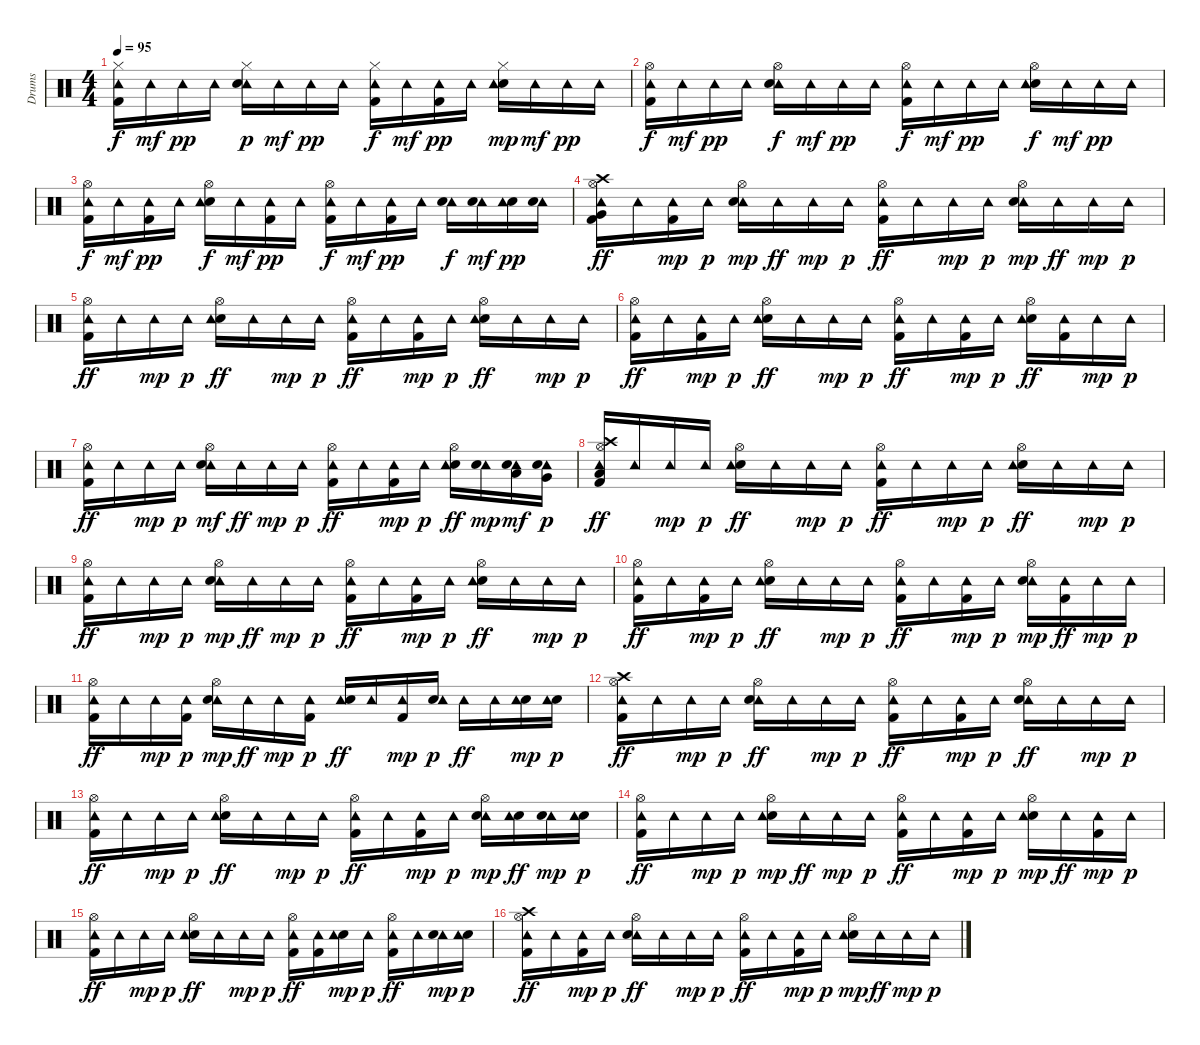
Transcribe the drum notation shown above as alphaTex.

\track ("Drums" "Drums") {instrument percussion}
\staff {score}
\articulation defaults
\ts (4 4)
\tempo 95
\clef neutral
\ks c
("Kick (hit) 2" "Tambourine (hit)" "Hi-Hat (closed)").16{dy f} "Tambourine (hit)".16{dy mf} "Tambourine (hit)".16{dy pp} "Tambourine (hit)".16 ("Hi-Hat (closed)" "Tambourine (hit)" "Snare (hit) 2").16{dy p} "Tambourine (hit)".16{dy mf} "Tambourine (hit)".16{dy pp} "Tambourine (hit)".16 ("Kick (hit) 2" "Tambourine (hit)" "Hi-Hat (closed)").16{dy f} "Tambourine (hit)".16{dy mf} ("Kick (hit) 2" "Tambourine (hit)").16{dy pp} "Tambourine (hit)".16 ("Snare (hit) 2" "Tambourine (hit)" "Hi-Hat (closed)").16{dy mp} "Tambourine (hit)".16{dy mf} "Tambourine (hit)".16{dy pp} "Tambourine (hit)".16 |
("Tambourine (hit)" "Kick (hit) 2" "Hi-Hat (open)").16{dy f} "Tambourine (hit)".16{dy mf} "Tambourine (hit)".16{dy pp} "Tambourine (hit)".16 ("Tambourine (hit)" "Snare (hit) 2" "Hi-Hat (open)").16{dy f} "Tambourine (hit)".16{dy mf} "Tambourine (hit)".16{dy pp} "Tambourine (hit)".16 ("Tambourine (hit)" "Kick (hit) 2" "Hi-Hat (open)").16{dy f} "Tambourine (hit)".16{dy mf} "Tambourine (hit)".16{dy pp} "Tambourine (hit)".16 ("Hi-Hat (open)" "Snare (hit) 2" "Tambourine (hit)").16{dy f} "Tambourine (hit)".16{dy mf} "Tambourine (hit)".16{dy pp} "Tambourine (hit)".16 |
("Hi-Hat (open)" "Kick (hit) 2" "Tambourine (hit)").16{dy f} "Tambourine (hit)".16{dy mf} ("Tambourine (hit)" "Kick (hit) 2").16{dy pp} "Tambourine (hit)".16 ("Hi-Hat (open)" "Snare (hit) 2" "Tambourine (hit)").16{dy f} "Tambourine (hit)".16{dy mf} ("Tambourine (hit)" "Kick (hit) 2").16{dy pp} "Tambourine (hit)".16 ("Hi-Hat (open)" "Kick (hit) 2" "Tambourine (hit)").16{dy f} "Tambourine (hit)".16{dy mf} ("Tambourine (hit)" "Kick (hit) 2").16{dy pp} "Tambourine (hit)".16 ("Tambourine (hit)" "Snare (hit) 2").16{dy f} ("Tambourine (hit)" "Snare (hit) 2").16{dy mf} ("Snare (hit) 2" "Tambourine (hit)").16{dy pp} ("Tambourine (hit)" "Snare (hit) 2").16 |
("Kick (hit) 2" "Very Low Tom (hit)" "Tambourine (hit)" "Crash high (hit)" "Hi-Hat (open)").16{dy ff} "Tambourine (hit)".16 ("Tambourine (hit)" "Kick (hit) 2").16{dy mp} "Tambourine (hit)".16{dy p} ("Tambourine (hit)" "Snare (hit) 2" "Hi-Hat (open)").16{dy mp} "Tambourine (hit)".16{dy ff} "Tambourine (hit)".16{dy mp} "Tambourine (hit)".16{dy p} ("Kick (hit) 2" "Hi-Hat (open)" "Tambourine (hit)").16{dy ff} "Tambourine (hit)".16 "Tambourine (hit)".16{dy mp} "Tambourine (hit)".16{dy p} ("Tambourine (hit)" "Snare (hit) 2" "Hi-Hat (open)").16{dy mp} "Tambourine (hit)".16{dy ff} "Tambourine (hit)".16{dy mp} "Tambourine (hit)".16{dy p} |
("Kick (hit) 2" "Hi-Hat (open)" "Tambourine (hit)").16{dy ff} "Tambourine (hit)".16 "Tambourine (hit)".16{dy mp} "Tambourine (hit)".16{dy p} ("Hi-Hat (open)" "Snare (hit) 2" "Tambourine (hit)").16{dy ff} "Tambourine (hit)".16 "Tambourine (hit)".16{dy mp} "Tambourine (hit)".16{dy p} ("Kick (hit) 2" "Hi-Hat (open)" "Tambourine (hit)").16{dy ff} "Tambourine (hit)".16 ("Kick (hit) 2" "Tambourine (hit)").16{dy mp} "Tambourine (hit)".16{dy p} ("Hi-Hat (open)" "Snare (hit) 2" "Tambourine (hit)").16{dy ff} "Tambourine (hit)".16 "Tambourine (hit)".16{dy mp} "Tambourine (hit)".16{dy p} |
("Tambourine (hit)" "Hi-Hat (open)" "Kick (hit) 2").16{dy ff} "Tambourine (hit)".16 ("Kick (hit) 2" "Tambourine (hit)").16{dy mp} "Tambourine (hit)".16{dy p} ("Snare (hit) 2" "Hi-Hat (open)" "Tambourine (hit)").16{dy ff} "Tambourine (hit)".16 "Tambourine (hit)".16{dy mp} "Tambourine (hit)".16{dy p} ("Hi-Hat (open)" "Kick (hit) 2" "Tambourine (hit)").16{dy ff} "Tambourine (hit)".16 ("Tambourine (hit)" "Kick (hit) 2").16{dy mp} "Tambourine (hit)".16{dy p} ("Hi-Hat (open)" "Snare (hit) 2" "Tambourine (hit)").16{dy ff} ("Tambourine (hit)" "Kick (hit) 2").16 "Tambourine (hit)".16{dy mp} "Tambourine (hit)".16{dy p} |
("Tambourine (hit)" "Hi-Hat (open)" "Kick (hit) 2").16{dy ff} "Tambourine (hit)".16 "Tambourine (hit)".16{dy mp} "Tambourine (hit)".16{dy p} ("Tambourine (hit)" "Snare (hit) 2" "Hi-Hat (open)").16{dy mf} "Tambourine (hit)".16{dy ff} "Tambourine (hit)".16{dy mp} "Tambourine (hit)".16{dy p} ("Tambourine (hit)" "Hi-Hat (open)" "Kick (hit) 2").16{dy ff} "Tambourine (hit)".16 ("Tambourine (hit)" "Kick (hit) 2").16{dy mp} "Tambourine (hit)".16{dy p} ("Snare (hit) 2" "Hi-Hat (open)" "Tambourine (hit)").16{dy ff} ("Tambourine (hit)" "Snare (hit) 2").16{dy mp} ("Tambourine (hit)" "Snare (hit) 2" "Low Tom (hit)").16{dy mf} ("Tambourine (hit)" "Snare (hit) 2" "Very Low Tom (hit)").16{dy p} |
("Low Floor Tom (hit)" "Kick (hit) 2" "Hi-Hat (open)" "Crash high (hit)" "Tambourine (hit)").16{dy ff} "Tambourine (hit)".16 "Tambourine (hit)".16{dy mp} "Tambourine (hit)".16{dy p} ("Hi-Hat (open)" "Snare (hit) 2" "Tambourine (hit)").16{dy ff} "Tambourine (hit)".16 "Tambourine (hit)".16{dy mp} "Tambourine (hit)".16{dy p} ("Tambourine (hit)" "Kick (hit) 2" "Hi-Hat (open)").16{dy ff} "Tambourine (hit)".16 "Tambourine (hit)".16{dy mp} "Tambourine (hit)".16{dy p} ("Snare (hit) 2" "Hi-Hat (open)" "Tambourine (hit)").16{dy ff} "Tambourine (hit)".16 "Tambourine (hit)".16{dy mp} "Tambourine (hit)".16{dy p} |
("Tambourine (hit)" "Hi-Hat (open)" "Kick (hit) 2").16{dy ff} "Tambourine (hit)".16 "Tambourine (hit)".16{dy mp} "Tambourine (hit)".16{dy p} ("Tambourine (hit)" "Hi-Hat (open)" "Snare (hit) 2").16{dy mp} "Tambourine (hit)".16{dy ff} "Tambourine (hit)".16{dy mp} "Tambourine (hit)".16{dy p} ("Tambourine (hit)" "Kick (hit) 2" "Hi-Hat (open)").16{dy ff} "Tambourine (hit)".16 ("Tambourine (hit)" "Kick (hit) 2").16{dy mp} "Tambourine (hit)".16{dy p} ("Snare (hit) 2" "Hi-Hat (open)" "Tambourine (hit)").16{dy ff} "Tambourine (hit)".16 "Tambourine (hit)".16{dy mp} "Tambourine (hit)".16{dy p} |
("Tambourine (hit)" "Hi-Hat (open)" "Kick (hit) 2").16{dy ff} "Tambourine (hit)".16 ("Kick (hit) 2" "Tambourine (hit)").16{dy mp} "Tambourine (hit)".16{dy p} ("Snare (hit) 2" "Hi-Hat (open)" "Tambourine (hit)").16{dy ff} "Tambourine (hit)".16 "Tambourine (hit)".16{dy mp} "Tambourine (hit)".16{dy p} ("Hi-Hat (open)" "Kick (hit) 2" "Tambourine (hit)").16{dy ff} "Tambourine (hit)".16 ("Kick (hit) 2" "Tambourine (hit)").16{dy mp} "Tambourine (hit)".16{dy p} ("Tambourine (hit)" "Hi-Hat (open)" "Snare (hit) 2").16{dy mp} ("Kick (hit) 2" "Tambourine (hit)").16{dy ff} "Tambourine (hit)".16{dy mp} "Tambourine (hit)".16{dy p} |
("Hi-Hat (open)" "Kick (hit) 2" "Tambourine (hit)").16{dy ff} "Tambourine (hit)".16 "Tambourine (hit)".16{dy mp} ("Tambourine (hit)" "Kick (hit) 2").16{dy p} ("Tambourine (hit)" "Snare (hit) 2" "Hi-Hat (open)").16{dy mp} "Tambourine (hit)".16{dy ff} "Tambourine (hit)".16{dy mp} ("Tambourine (hit)" "Kick (hit) 2").16{dy p} ("Tambourine (hit)" "Snare (hit) 2").16{dy ff} "Tambourine (hit)".16 ("Kick (hit) 2" "Tambourine (hit)").16{dy mp} ("Snare (hit) 2" "Tambourine (hit)").16{dy p} "Tambourine (hit)".16{dy ff} "Tambourine (hit)".16 ("Snare (hit) 2" "Tambourine (hit)").16{dy mp} ("Snare (hit) 2" "Tambourine (hit)").16{dy p} |
("Hi-Hat (open)" "Crash high (hit)" "Tambourine (hit)" "Kick (hit) 2").16{dy ff} "Tambourine (hit)".16 "Tambourine (hit)".16{dy mp} "Tambourine (hit)".16{dy p} ("Hi-Hat (open)" "Tambourine (hit)" "Snare (hit) 2").16{dy ff} "Tambourine (hit)".16 "Tambourine (hit)".16{dy mp} "Tambourine (hit)".16{dy p} ("Kick (hit) 2" "Tambourine (hit)" "Hi-Hat (open)").16{dy ff} "Tambourine (hit)".16 ("Kick (hit) 2" "Tambourine (hit)").16{dy mp} "Tambourine (hit)".16{dy p} ("Hi-Hat (open)" "Tambourine (hit)" "Snare (hit) 2").16{dy ff} "Tambourine (hit)".16 "Tambourine (hit)".16{dy mp} "Tambourine (hit)".16{dy p} |
("Hi-Hat (open)" "Tambourine (hit)" "Kick (hit) 2").16{dy ff} "Tambourine (hit)".16 "Tambourine (hit)".16{dy mp} "Tambourine (hit)".16{dy p} ("Snare (hit) 2" "Hi-Hat (open)" "Tambourine (hit)").16{dy ff} "Tambourine (hit)".16 "Tambourine (hit)".16{dy mp} "Tambourine (hit)".16{dy p} ("Tambourine (hit)" "Hi-Hat (open)" "Kick (hit) 2").16{dy ff} "Tambourine (hit)".16 ("Kick (hit) 2" "Tambourine (hit)").16{dy mp} "Tambourine (hit)".16{dy p} ("Tambourine (hit)" "Hi-Hat (open)" "Snare (hit) 2").16{dy mp} ("Snare (hit) 2" "Tambourine (hit)").16{dy ff} ("Tambourine (hit)" "Snare (hit) 2").16{dy mp} ("Snare (hit) 2" "Tambourine (hit)").16{dy p} |
("Kick (hit) 2" "Hi-Hat (open)" "Tambourine (hit)").16{dy ff} "Tambourine (hit)".16 "Tambourine (hit)".16{dy mp} "Tambourine (hit)".16{dy p} ("Snare (hit) 2" "Tambourine (hit)" "Hi-Hat (open)").16{dy mp} "Tambourine (hit)".16{dy ff} "Tambourine (hit)".16{dy mp} "Tambourine (hit)".16{dy p} ("Hi-Hat (open)" "Tambourine (hit)" "Kick (hit) 2").16{dy ff} "Tambourine (hit)".16 ("Tambourine (hit)" "Kick (hit) 2").16{dy mp} "Tambourine (hit)".16{dy p} ("Snare (hit) 2" "Tambourine (hit)" "Hi-Hat (open)").16{dy mp} "Tambourine (hit)".16{dy ff} ("Kick (hit) 2" "Tambourine (hit)").16{dy mp} "Tambourine (hit)".16{dy p} |
("Kick (hit) 2" "Tambourine (hit)" "Hi-Hat (open)").16{dy ff} "Tambourine (hit)".16 "Tambourine (hit)".16{dy mp} "Tambourine (hit)".16{dy p} ("Snare (hit) 2" "Hi-Hat (open)" "Tambourine (hit)").16{dy ff} "Tambourine (hit)".16 "Tambourine (hit)".16{dy mp} "Tambourine (hit)".16{dy p} ("Tambourine (hit)" "Hi-Hat (open)" "Kick (hit) 2").16{dy ff} ("Tambourine (hit)" "Kick (hit) 2").16 ("Snare (hit) 2" "Tambourine (hit)").16{dy mp} "Tambourine (hit)".16{dy p} ("Kick (hit) 2" "Hi-Hat (open)" "Tambourine (hit)").16{dy ff} "Tambourine (hit)".16 ("Tambourine (hit)" "Snare (hit) 2").16{dy mp} ("Snare (hit) 2" "Tambourine (hit)").16{dy p} |
("Kick (hit) 2" "Hi-Hat (open)" "Crash high (hit)" "Tambourine (hit)").16{dy ff} "Tambourine (hit)".16 ("Kick (hit) 2" "Tambourine (hit)").16{dy mp} "Tambourine (hit)".16{dy p} ("Hi-Hat (open)" "Tambourine (hit)" "Snare (hit) 2").16{dy ff} "Tambourine (hit)".16 "Tambourine (hit)".16{dy mp} "Tambourine (hit)".16{dy p} ("Kick (hit) 2" "Tambourine (hit)" "Hi-Hat (open)").16{dy ff} "Tambourine (hit)".16 ("Kick (hit) 2" "Tambourine (hit)").16{dy mp} "Tambourine (hit)".16{dy p} ("Snare (hit) 2" "Tambourine (hit)" "Hi-Hat (open)").16{dy mp} "Tambourine (hit)".16{dy ff} "Tambourine (hit)".16{dy mp} "Tambourine (hit)".16{dy p}
